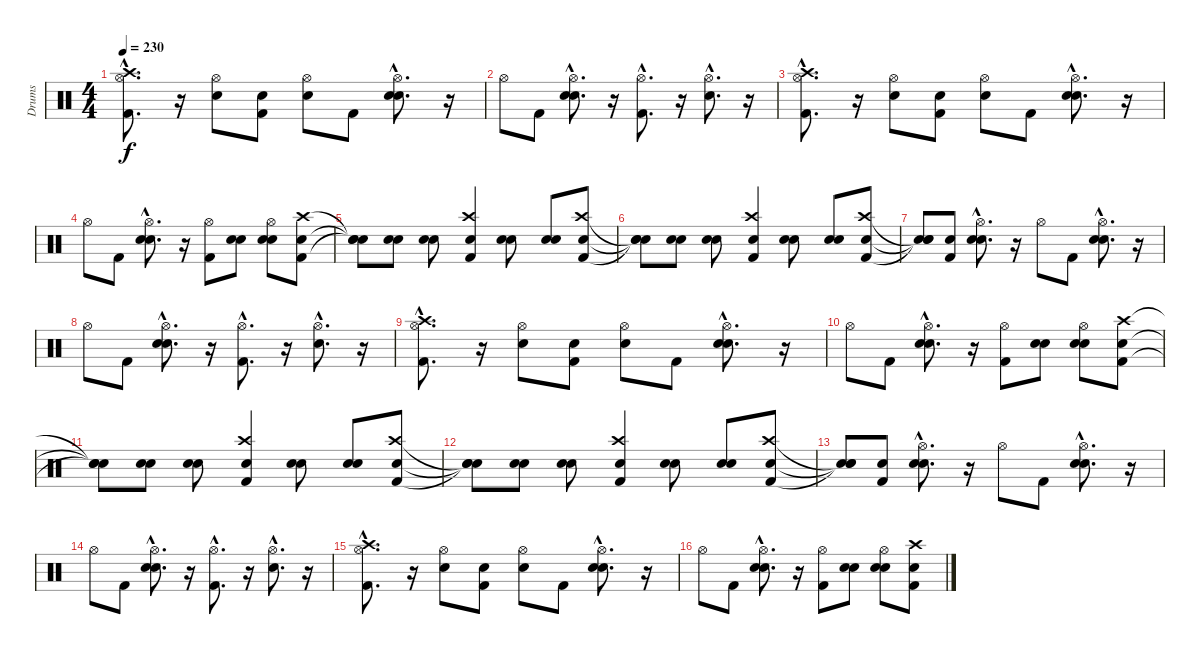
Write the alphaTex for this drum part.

\track ("Drums" "Drums") {instrument percussion}
\staff {score}
\articulation defaults
\ts (4 4)
\tempo 230
\clef neutral
\ks c
("Kick (hit) 2"{hac} "Hi-Hat (open)"{hac} "Crash high (hit)"{hac}).8{d dy f} r.16 ("Snare (hit) 2" "Hi-Hat (open)").8 ("Snare (hit)" "Kick (hit) 2").8 ("Snare (hit)" "Hi-Hat (open)").8 "Kick (hit) 2".8 ("Snare (hit)"{hac} "Snare (hit) 2"{hac} "Hi-Hat (open)"{hac}).8{d} r.16 |
"Hi-Hat (open)".8 "Kick (hit) 2".8 ("Snare (hit)"{hac} "Snare (hit) 2"{hac} "Hi-Hat (open)"{hac}).8{d} r.16 ("Kick (hit) 2"{hac} "Hi-Hat (open)"{hac}).8{d} r.16 ("Snare (hit) 2"{hac} "Hi-Hat (open)"{hac}).8{d} r.16 |
("Kick (hit) 2"{hac} "Hi-Hat (open)"{hac} "Crash high (hit)"{hac}).8{d} r.16 ("Snare (hit) 2" "Hi-Hat (open)").8 ("Snare (hit)" "Kick (hit) 2").8 ("Snare (hit)" "Hi-Hat (open)").8 "Kick (hit) 2".8 ("Snare (hit)"{hac} "Snare (hit) 2"{hac} "Hi-Hat (open)"{hac}).8{d} r.16 |
"Hi-Hat (open)".8 "Kick (hit) 2".8 ("Snare (hit)"{hac} "Snare (hit) 2"{hac} "Hi-Hat (open)"{hac}).8{d} r.16 ("Kick (hit) 2" "Hi-Hat (open)").8 ("Snare (hit)" "Snare (hit) 2").8 ("Snare (hit)" "Snare (hit) 2" "Hi-Hat (open)").8 ("Snare (hit)" "Kick (hit) 2" "Crash high (hit)").8 |
("Snare (hit)"{t} "Snare (hit)"{t} "Snare (hit)"{t}).8 ("Snare (hit)" "Snare (hit) 2").8 ("Snare (hit)" "Snare (hit) 2").8 ("Snare (hit)" "Kick (hit) 2" "Crash high (hit)").4 ("Snare (hit)" "Snare (hit) 2").8 ("Snare (hit)" "Snare (hit) 2").8 ("Snare (hit)" "Kick (hit) 2" "Crash high (hit)").8 |
("Snare (hit)"{t} "Snare (hit)"{t} "Snare (hit)"{t}).8 ("Snare (hit)" "Snare (hit) 2").8 ("Snare (hit)" "Snare (hit) 2").8 ("Snare (hit)" "Kick (hit) 2" "Crash high (hit)").4 ("Snare (hit)" "Snare (hit) 2").8 ("Snare (hit)" "Snare (hit) 2").8 ("Snare (hit)" "Kick (hit) 2" "Crash high (hit)").8 |
("Snare (hit)"{t} "Snare (hit)"{t} "Snare (hit)"{t}).8 ("Snare (hit)" "Kick (hit) 2").8 ("Snare (hit)"{hac} "Snare (hit) 2"{hac} "Hi-Hat (open)"{hac}).8{d} r.16 "Hi-Hat (open)".8 "Kick (hit) 2".8 ("Snare (hit)"{hac} "Snare (hit) 2"{hac} "Hi-Hat (open)"{hac}).8{d} r.16 |
"Hi-Hat (open)".8 "Kick (hit) 2".8 ("Snare (hit)"{hac} "Snare (hit) 2"{hac} "Hi-Hat (open)"{hac}).8{d} r.16 ("Kick (hit) 2"{hac} "Hi-Hat (open)"{hac}).8{d} r.16 ("Snare (hit) 2"{hac} "Hi-Hat (open)"{hac}).8{d} r.16 |
("Kick (hit) 2"{hac} "Hi-Hat (open)"{hac} "Crash high (hit)"{hac}).8{d} r.16 ("Snare (hit) 2" "Hi-Hat (open)").8 ("Snare (hit)" "Kick (hit) 2").8 ("Snare (hit)" "Hi-Hat (open)").8 "Kick (hit) 2".8 ("Snare (hit)"{hac} "Snare (hit) 2"{hac} "Hi-Hat (open)"{hac}).8{d} r.16 |
"Hi-Hat (open)".8 "Kick (hit) 2".8 ("Snare (hit)"{hac} "Snare (hit) 2"{hac} "Hi-Hat (open)"{hac}).8{d} r.16 ("Kick (hit) 2" "Hi-Hat (open)").8 ("Snare (hit)" "Snare (hit) 2").8 ("Snare (hit)" "Snare (hit) 2" "Hi-Hat (open)").8 ("Snare (hit)" "Kick (hit) 2" "Crash high (hit)").8 |
("Snare (hit)"{t} "Snare (hit)"{t} "Snare (hit)"{t}).8 ("Snare (hit)" "Snare (hit) 2").8 ("Snare (hit)" "Snare (hit) 2").8 ("Snare (hit)" "Kick (hit) 2" "Crash high (hit)").4 ("Snare (hit)" "Snare (hit) 2").8 ("Snare (hit)" "Snare (hit) 2").8 ("Snare (hit)" "Kick (hit) 2" "Crash high (hit)").8 |
("Snare (hit)"{t} "Snare (hit)"{t} "Snare (hit)"{t}).8 ("Snare (hit)" "Snare (hit) 2").8 ("Snare (hit)" "Snare (hit) 2").8 ("Snare (hit)" "Kick (hit) 2" "Crash high (hit)").4 ("Snare (hit)" "Snare (hit) 2").8 ("Snare (hit)" "Snare (hit) 2").8 ("Snare (hit)" "Kick (hit) 2" "Crash high (hit)").8 |
("Snare (hit)"{t} "Snare (hit)"{t} "Snare (hit)"{t}).8 ("Snare (hit)" "Kick (hit) 2").8 ("Snare (hit)"{hac} "Snare (hit) 2"{hac} "Hi-Hat (open)"{hac}).8{d} r.16 "Hi-Hat (open)".8 "Kick (hit) 2".8 ("Snare (hit)"{hac} "Snare (hit) 2"{hac} "Hi-Hat (open)"{hac}).8{d} r.16 |
"Hi-Hat (open)".8 "Kick (hit) 2".8 ("Snare (hit)"{hac} "Snare (hit) 2"{hac} "Hi-Hat (open)"{hac}).8{d} r.16 ("Kick (hit) 2"{hac} "Hi-Hat (open)"{hac}).8{d} r.16 ("Snare (hit) 2"{hac} "Hi-Hat (open)"{hac}).8{d} r.16 |
("Kick (hit) 2"{hac} "Hi-Hat (open)"{hac} "Crash high (hit)"{hac}).8{d} r.16 ("Snare (hit) 2" "Hi-Hat (open)").8 ("Snare (hit)" "Kick (hit) 2").8 ("Snare (hit)" "Hi-Hat (open)").8 "Kick (hit) 2".8 ("Snare (hit)"{hac} "Snare (hit) 2"{hac} "Hi-Hat (open)"{hac}).8{d} r.16 |
"Hi-Hat (open)".8 "Kick (hit) 2".8 ("Snare (hit)"{hac} "Snare (hit) 2"{hac} "Hi-Hat (open)"{hac}).8{d} r.16 ("Kick (hit) 2" "Hi-Hat (open)").8 ("Snare (hit)" "Snare (hit) 2").8 ("Snare (hit)" "Snare (hit) 2" "Hi-Hat (open)").8 ("Snare (hit)" "Kick (hit) 2" "Crash high (hit)").8
